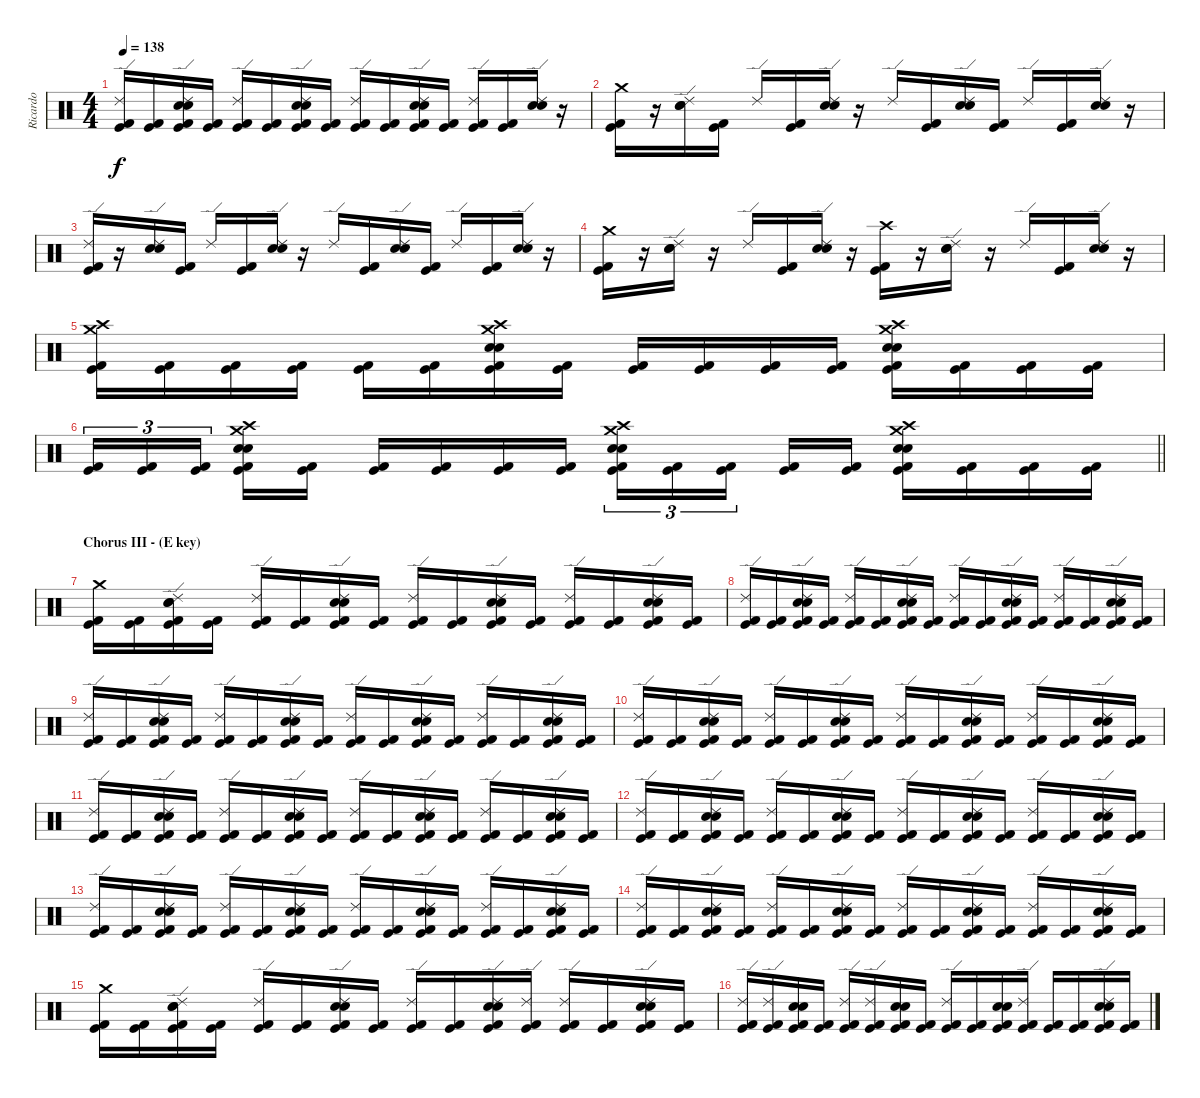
\track ("Ricardo" "Ricardo") {instrument percussion}
\staff {score}
\articulation defaults
\ts (4 4)
\tempo 138
\clef neutral
\ks c
("Ride (edge) 2" "Kick (hit) 2" "Kick (hit)").16{dy f} ("Kick (hit) 2" "Kick (hit)").16 ("Electric Snare (hit)" "Snare (hit) 2" "Ride (edge) 2" "Kick (hit) 2" "Kick (hit)").16 ("Kick (hit) 2" "Kick (hit)").16 ("Ride (edge) 2" "Kick (hit) 2" "Kick (hit)").16 ("Kick (hit) 2" "Kick (hit)").16 ("Electric Snare (hit)" "Snare (hit) 2" "Ride (edge) 2" "Kick (hit) 2" "Kick (hit)").16 ("Kick (hit) 2" "Kick (hit)").16 ("Ride (edge) 2" "Kick (hit) 2" "Kick (hit)").16 ("Kick (hit) 2" "Kick (hit)").16 ("Electric Snare (hit)" "Snare (hit) 2" "Ride (edge) 2" "Kick (hit) 2" "Kick (hit)").16 ("Kick (hit) 2" "Kick (hit)").16 ("Ride (edge) 2" "Kick (hit) 2" "Kick (hit)").16 ("Kick (hit) 2" "Kick (hit)").16 ("Ride (edge) 2" "Electric Snare (hit)" "Snare (hit) 2").16 r.16 |
("Crash medium (hit)" "Kick (hit) 2" "Kick (hit)").16 r.16 ("Electric Snare (hit)" "Snare (hit) 2" "Ride (edge) 2").16 ("Kick (hit) 2" "Kick (hit)").16 "Ride (edge) 2".16 ("Kick (hit) 2" "Kick (hit)").16 ("Electric Snare (hit)" "Snare (hit) 2" "Ride (edge) 2").16 r.16 "Ride (edge) 2".16 ("Kick (hit) 2" "Kick (hit)").16 ("Electric Snare (hit)" "Snare (hit) 2" "Ride (edge) 2").16 ("Kick (hit) 2" "Kick (hit)").16 "Ride (edge) 2".16 ("Kick (hit) 2" "Kick (hit)").16 ("Electric Snare (hit)" "Snare (hit) 2" "Ride (edge) 2").16 r.16 |
("Ride (edge) 2" "Kick (hit) 2" "Kick (hit)").16 r.16 ("Ride (edge) 2" "Electric Snare (hit)" "Snare (hit) 2").16 ("Kick (hit) 2" "Kick (hit)").16 "Ride (edge) 2".16 ("Kick (hit) 2" "Kick (hit)").16 ("Electric Snare (hit)" "Snare (hit) 2" "Ride (edge) 2").16 r.16 "Ride (edge) 2".16 ("Kick (hit) 2" "Kick (hit)").16 ("Electric Snare (hit)" "Snare (hit) 2" "Ride (edge) 2").16 ("Kick (hit) 2" "Kick (hit)").16 "Ride (edge) 2".16 ("Kick (hit) 2" "Kick (hit)").16 ("Electric Snare (hit)" "Snare (hit) 2" "Ride (edge) 2").16 r.16 |
("Kick (hit) 2" "Kick (hit)" "Crash medium (hit)").16 r.16 ("Electric Snare (hit)" "Snare (hit) 2" "Ride (edge) 2").16 r.16 "Ride (edge) 2".16 ("Kick (hit) 2" "Kick (hit)").16 ("Electric Snare (hit)" "Snare (hit) 2" "Ride (edge) 2").16 r.16 ("Crash high (hit)" "Kick (hit) 2" "Kick (hit)").16 r.16 ("Ride (edge) 2" "Electric Snare (hit)" "Snare (hit) 2").16 r.16 "Ride (edge) 2".16 ("Kick (hit)" "Kick (hit) 2").16 ("Ride (edge) 2" "Electric Snare (hit)" "Snare (hit) 2").16 r.16 |
("Crash high (hit)" "Crash medium (hit)" "Kick (hit) 2" "Kick (hit)").16 ("Kick (hit) 2" "Kick (hit)").16 ("Kick (hit) 2" "Kick (hit)").16 ("Kick (hit) 2" "Kick (hit)").16 ("Kick (hit) 2" "Kick (hit)").16 ("Kick (hit) 2" "Kick (hit)").16 ("Crash high (hit)" "Crash medium (hit)" "Electric Snare (hit)" "Snare (hit) 2" "Kick (hit) 2" "Kick (hit)").16 ("Kick (hit) 2" "Kick (hit)").16 ("Kick (hit) 2" "Kick (hit)").16 ("Kick (hit) 2" "Kick (hit)").16 ("Kick (hit) 2" "Kick (hit)").16 ("Kick (hit) 2" "Kick (hit)").16 ("Crash medium (hit)" "Crash high (hit)" "Electric Snare (hit)" "Snare (hit) 2" "Kick (hit) 2" "Kick (hit)").16 ("Kick (hit) 2" "Kick (hit)").16 ("Kick (hit) 2" "Kick (hit)").16 ("Kick (hit) 2" "Kick (hit)").16 |
\barLineRight lightlight
("Kick (hit) 2" "Kick (hit)").16{tu (3 2)} ("Kick (hit) 2" "Kick (hit)").16{tu (3 2)} ("Kick (hit) 2" "Kick (hit)").16{tu (3 2)} ("Crash high (hit)" "Crash medium (hit)" "Electric Snare (hit)" "Snare (hit) 2" "Kick (hit) 2" "Kick (hit)").16 ("Kick (hit) 2" "Kick (hit)").16 ("Kick (hit) 2" "Kick (hit)").16 ("Kick (hit) 2" "Kick (hit)").16 ("Kick (hit) 2" "Kick (hit)").16 ("Kick (hit) 2" "Kick (hit)").16 ("Crash medium (hit)" "Crash high (hit)" "Electric Snare (hit)" "Snare (hit) 2" "Kick (hit) 2" "Kick (hit)").16{tu (3 2)} ("Kick (hit) 2" "Kick (hit)").16{tu (3 2)} ("Kick (hit) 2" "Kick (hit)").16{tu (3 2)} ("Kick (hit) 2" "Kick (hit)").16 ("Kick (hit) 2" "Kick (hit)").16 ("Crash medium (hit)" "Crash high (hit)" "Electric Snare (hit)" "Snare (hit) 2" "Kick (hit) 2" "Kick (hit)").16 ("Kick (hit) 2" "Kick (hit)").16 ("Kick (hit) 2" "Kick (hit)").16 ("Kick (hit) 2" "Kick (hit)").16 |
\section ("" "Chorus III - (E key)")
("Crash medium (hit)" "Kick (hit) 2" "Kick (hit)").16 ("Kick (hit) 2" "Kick (hit)").16 ("Electric Snare (hit)" "Snare (hit) 2" "Ride (edge) 2" "Kick (hit) 2" "Kick (hit)").16 ("Kick (hit) 2" "Kick (hit)").16 ("Ride (edge) 2" "Kick (hit) 2" "Kick (hit)").16 ("Kick (hit) 2" "Kick (hit)").16 ("Electric Snare (hit)" "Snare (hit) 2" "Ride (edge) 2" "Kick (hit) 2" "Kick (hit)").16 ("Kick (hit) 2" "Kick (hit)").16 ("Ride (edge) 2" "Kick (hit) 2" "Kick (hit)").16 ("Kick (hit) 2" "Kick (hit)").16 ("Electric Snare (hit)" "Snare (hit) 2" "Ride (edge) 2" "Kick (hit) 2" "Kick (hit)").16 ("Kick (hit) 2" "Kick (hit)").16 ("Ride (edge) 2" "Kick (hit) 2" "Kick (hit)").16 ("Kick (hit) 2" "Kick (hit)").16 ("Electric Snare (hit)" "Snare (hit) 2" "Ride (edge) 2" "Kick (hit) 2" "Kick (hit)").16 ("Kick (hit) 2" "Kick (hit)").16 |
("Ride (edge) 2" "Kick (hit) 2" "Kick (hit)").16 ("Kick (hit) 2" "Kick (hit)").16 ("Electric Snare (hit)" "Snare (hit) 2" "Ride (edge) 2" "Kick (hit) 2" "Kick (hit)").16 ("Kick (hit) 2" "Kick (hit)").16 ("Ride (edge) 2" "Kick (hit) 2" "Kick (hit)").16 ("Kick (hit) 2" "Kick (hit)").16 ("Electric Snare (hit)" "Snare (hit) 2" "Ride (edge) 2" "Kick (hit) 2" "Kick (hit)").16 ("Kick (hit) 2" "Kick (hit)").16 ("Ride (edge) 2" "Kick (hit) 2" "Kick (hit)").16 ("Kick (hit) 2" "Kick (hit)").16 ("Electric Snare (hit)" "Snare (hit) 2" "Ride (edge) 2" "Kick (hit) 2" "Kick (hit)").16 ("Kick (hit) 2" "Kick (hit)").16 ("Ride (edge) 2" "Kick (hit) 2" "Kick (hit)").16 ("Kick (hit) 2" "Kick (hit)").16 ("Electric Snare (hit)" "Snare (hit) 2" "Ride (edge) 2" "Kick (hit) 2" "Kick (hit)").16 ("Kick (hit) 2" "Kick (hit)").16 |
("Ride (edge) 2" "Kick (hit) 2" "Kick (hit)").16 ("Kick (hit) 2" "Kick (hit)").16 ("Electric Snare (hit)" "Snare (hit) 2" "Ride (edge) 2" "Kick (hit) 2" "Kick (hit)").16 ("Kick (hit) 2" "Kick (hit)").16 ("Ride (edge) 2" "Kick (hit) 2" "Kick (hit)").16 ("Kick (hit) 2" "Kick (hit)").16 ("Electric Snare (hit)" "Snare (hit) 2" "Ride (edge) 2" "Kick (hit) 2" "Kick (hit)").16 ("Kick (hit) 2" "Kick (hit)").16 ("Ride (edge) 2" "Kick (hit) 2" "Kick (hit)").16 ("Kick (hit) 2" "Kick (hit)").16 ("Electric Snare (hit)" "Snare (hit) 2" "Ride (edge) 2" "Kick (hit) 2" "Kick (hit)").16 ("Kick (hit) 2" "Kick (hit)").16 ("Ride (edge) 2" "Kick (hit) 2" "Kick (hit)").16 ("Kick (hit) 2" "Kick (hit)").16 ("Electric Snare (hit)" "Snare (hit) 2" "Ride (edge) 2" "Kick (hit) 2" "Kick (hit)").16 ("Kick (hit) 2" "Kick (hit)").16 |
("Ride (edge) 2" "Kick (hit) 2" "Kick (hit)").16 ("Kick (hit) 2" "Kick (hit)").16 ("Electric Snare (hit)" "Snare (hit) 2" "Ride (edge) 2" "Kick (hit) 2" "Kick (hit)").16 ("Kick (hit) 2" "Kick (hit)").16 ("Ride (edge) 2" "Kick (hit) 2" "Kick (hit)").16 ("Kick (hit) 2" "Kick (hit)").16 ("Electric Snare (hit)" "Snare (hit) 2" "Ride (edge) 2" "Kick (hit) 2" "Kick (hit)").16 ("Kick (hit) 2" "Kick (hit)").16 ("Ride (edge) 2" "Kick (hit) 2" "Kick (hit)").16 ("Kick (hit) 2" "Kick (hit)").16 ("Electric Snare (hit)" "Snare (hit) 2" "Ride (edge) 2" "Kick (hit) 2" "Kick (hit)").16 ("Kick (hit) 2" "Kick (hit)").16 ("Ride (edge) 2" "Kick (hit) 2" "Kick (hit)").16 ("Kick (hit) 2" "Kick (hit)").16 ("Electric Snare (hit)" "Snare (hit) 2" "Ride (edge) 2" "Kick (hit) 2" "Kick (hit)").16 ("Kick (hit) 2" "Kick (hit)").16 |
("Ride (edge) 2" "Kick (hit) 2" "Kick (hit)").16 ("Kick (hit) 2" "Kick (hit)").16 ("Electric Snare (hit)" "Snare (hit) 2" "Ride (edge) 2" "Kick (hit) 2" "Kick (hit)").16 ("Kick (hit) 2" "Kick (hit)").16 ("Ride (edge) 2" "Kick (hit) 2" "Kick (hit)").16 ("Kick (hit) 2" "Kick (hit)").16 ("Electric Snare (hit)" "Snare (hit) 2" "Ride (edge) 2" "Kick (hit) 2" "Kick (hit)").16 ("Kick (hit) 2" "Kick (hit)").16 ("Ride (edge) 2" "Kick (hit) 2" "Kick (hit)").16 ("Kick (hit) 2" "Kick (hit)").16 ("Electric Snare (hit)" "Snare (hit) 2" "Ride (edge) 2" "Kick (hit) 2" "Kick (hit)").16 ("Kick (hit) 2" "Kick (hit)").16 ("Ride (edge) 2" "Kick (hit) 2" "Kick (hit)").16 ("Kick (hit) 2" "Kick (hit)").16 ("Electric Snare (hit)" "Snare (hit) 2" "Ride (edge) 2" "Kick (hit) 2" "Kick (hit)").16 ("Kick (hit) 2" "Kick (hit)").16 |
("Ride (edge) 2" "Kick (hit) 2" "Kick (hit)").16 ("Kick (hit) 2" "Kick (hit)").16 ("Electric Snare (hit)" "Snare (hit) 2" "Ride (edge) 2" "Kick (hit) 2" "Kick (hit)").16 ("Kick (hit) 2" "Kick (hit)").16 ("Ride (edge) 2" "Kick (hit) 2" "Kick (hit)").16 ("Kick (hit) 2" "Kick (hit)").16 ("Electric Snare (hit)" "Snare (hit) 2" "Ride (edge) 2" "Kick (hit) 2" "Kick (hit)").16 ("Kick (hit) 2" "Kick (hit)").16 ("Ride (edge) 2" "Kick (hit) 2" "Kick (hit)").16 ("Kick (hit) 2" "Kick (hit)").16 ("Electric Snare (hit)" "Snare (hit) 2" "Ride (edge) 2" "Kick (hit) 2" "Kick (hit)").16 ("Kick (hit) 2" "Kick (hit)").16 ("Ride (edge) 2" "Kick (hit) 2" "Kick (hit)").16 ("Kick (hit) 2" "Kick (hit)").16 ("Electric Snare (hit)" "Snare (hit) 2" "Ride (edge) 2" "Kick (hit) 2" "Kick (hit)").16 ("Kick (hit) 2" "Kick (hit)").16 |
("Ride (edge) 2" "Kick (hit) 2" "Kick (hit)").16 ("Kick (hit) 2" "Kick (hit)").16 ("Electric Snare (hit)" "Snare (hit) 2" "Ride (edge) 2" "Kick (hit) 2" "Kick (hit)").16 ("Kick (hit) 2" "Kick (hit)").16 ("Ride (edge) 2" "Kick (hit) 2" "Kick (hit)").16 ("Kick (hit) 2" "Kick (hit)").16 ("Electric Snare (hit)" "Snare (hit) 2" "Ride (edge) 2" "Kick (hit) 2" "Kick (hit)").16 ("Kick (hit) 2" "Kick (hit)").16 ("Ride (edge) 2" "Kick (hit) 2" "Kick (hit)").16 ("Kick (hit) 2" "Kick (hit)").16 ("Electric Snare (hit)" "Snare (hit) 2" "Ride (edge) 2" "Kick (hit) 2" "Kick (hit)").16 ("Kick (hit) 2" "Kick (hit)").16 ("Ride (edge) 2" "Kick (hit) 2" "Kick (hit)").16 ("Kick (hit) 2" "Kick (hit)").16 ("Electric Snare (hit)" "Snare (hit) 2" "Ride (edge) 2" "Kick (hit) 2" "Kick (hit)").16 ("Kick (hit) 2" "Kick (hit)").16 |
("Ride (edge) 2" "Kick (hit) 2" "Kick (hit)").16 ("Kick (hit) 2" "Kick (hit)").16 ("Electric Snare (hit)" "Snare (hit) 2" "Ride (edge) 2" "Kick (hit) 2" "Kick (hit)").16 ("Kick (hit) 2" "Kick (hit)").16 ("Ride (edge) 2" "Kick (hit) 2" "Kick (hit)").16 ("Kick (hit) 2" "Kick (hit)").16 ("Electric Snare (hit)" "Snare (hit) 2" "Ride (edge) 2" "Kick (hit) 2" "Kick (hit)").16 ("Kick (hit) 2" "Kick (hit)").16 ("Ride (edge) 2" "Kick (hit) 2" "Kick (hit)").16 ("Kick (hit) 2" "Kick (hit)").16 ("Electric Snare (hit)" "Snare (hit) 2" "Ride (edge) 2" "Kick (hit) 2" "Kick (hit)").16 ("Kick (hit) 2" "Kick (hit)").16 ("Ride (edge) 2" "Kick (hit) 2" "Kick (hit)").16 ("Kick (hit) 2" "Kick (hit)").16 ("Electric Snare (hit)" "Snare (hit) 2" "Ride (edge) 2" "Kick (hit) 2" "Kick (hit)").16 ("Kick (hit) 2" "Kick (hit)").16 |
("Crash medium (hit)" "Kick (hit) 2" "Kick (hit)").16 ("Kick (hit) 2" "Kick (hit)").16 ("Electric Snare (hit)" "Snare (hit) 2" "Ride (edge) 2" "Kick (hit) 2" "Kick (hit)").16 ("Kick (hit) 2" "Kick (hit)").16 ("Ride (edge) 2" "Kick (hit) 2" "Kick (hit)").16 ("Kick (hit) 2" "Kick (hit)").16 ("Electric Snare (hit)" "Snare (hit) 2" "Ride (edge) 2" "Kick (hit) 2" "Kick (hit)").16 ("Kick (hit) 2" "Kick (hit)").16 ("Ride (edge) 2" "Kick (hit) 2" "Kick (hit)").16 ("Kick (hit) 2" "Kick (hit)").16 ("Electric Snare (hit)" "Snare (hit) 2" "Ride (edge) 2" "Kick (hit) 2" "Kick (hit)").16 ("Ride (edge) 2" "Kick (hit) 2" "Kick (hit)").16 ("Ride (edge) 2" "Kick (hit) 2" "Kick (hit)").16 ("Kick (hit) 2" "Kick (hit)").16 ("Electric Snare (hit)" "Snare (hit) 2" "Ride (edge) 2" "Kick (hit) 2" "Kick (hit)").16 ("Kick (hit) 2" "Kick (hit)").16 |
("Ride (edge) 2" "Kick (hit) 2" "Kick (hit)").16 ("Ride (edge) 2" "Kick (hit) 2" "Kick (hit)").16 ("Electric Snare (hit)" "Snare (hit) 2" "Kick (hit) 2" "Kick (hit)").16 ("Kick (hit) 2" "Kick (hit)").16 ("Ride (edge) 2" "Kick (hit) 2" "Kick (hit)").16 ("Ride (edge) 2" "Kick (hit) 2" "Kick (hit)").16 ("Electric Snare (hit)" "Snare (hit) 2" "Kick (hit) 2" "Kick (hit)").16 ("Kick (hit) 2" "Kick (hit)").16 ("Ride (edge) 2" "Kick (hit) 2" "Kick (hit)").16 ("Kick (hit) 2" "Kick (hit)").16 ("Electric Snare (hit)" "Snare (hit) 2" "Kick (hit) 2" "Kick (hit)").16 ("Ride (edge) 2" "Kick (hit) 2" "Kick (hit)").16 ("Kick (hit) 2" "Kick (hit)").16 ("Kick (hit) 2" "Kick (hit)").16 ("Electric Snare (hit)" "Snare (hit) 2" "Ride (edge) 2" "Kick (hit) 2" "Kick (hit)").16 ("Kick (hit) 2" "Kick (hit)").16
